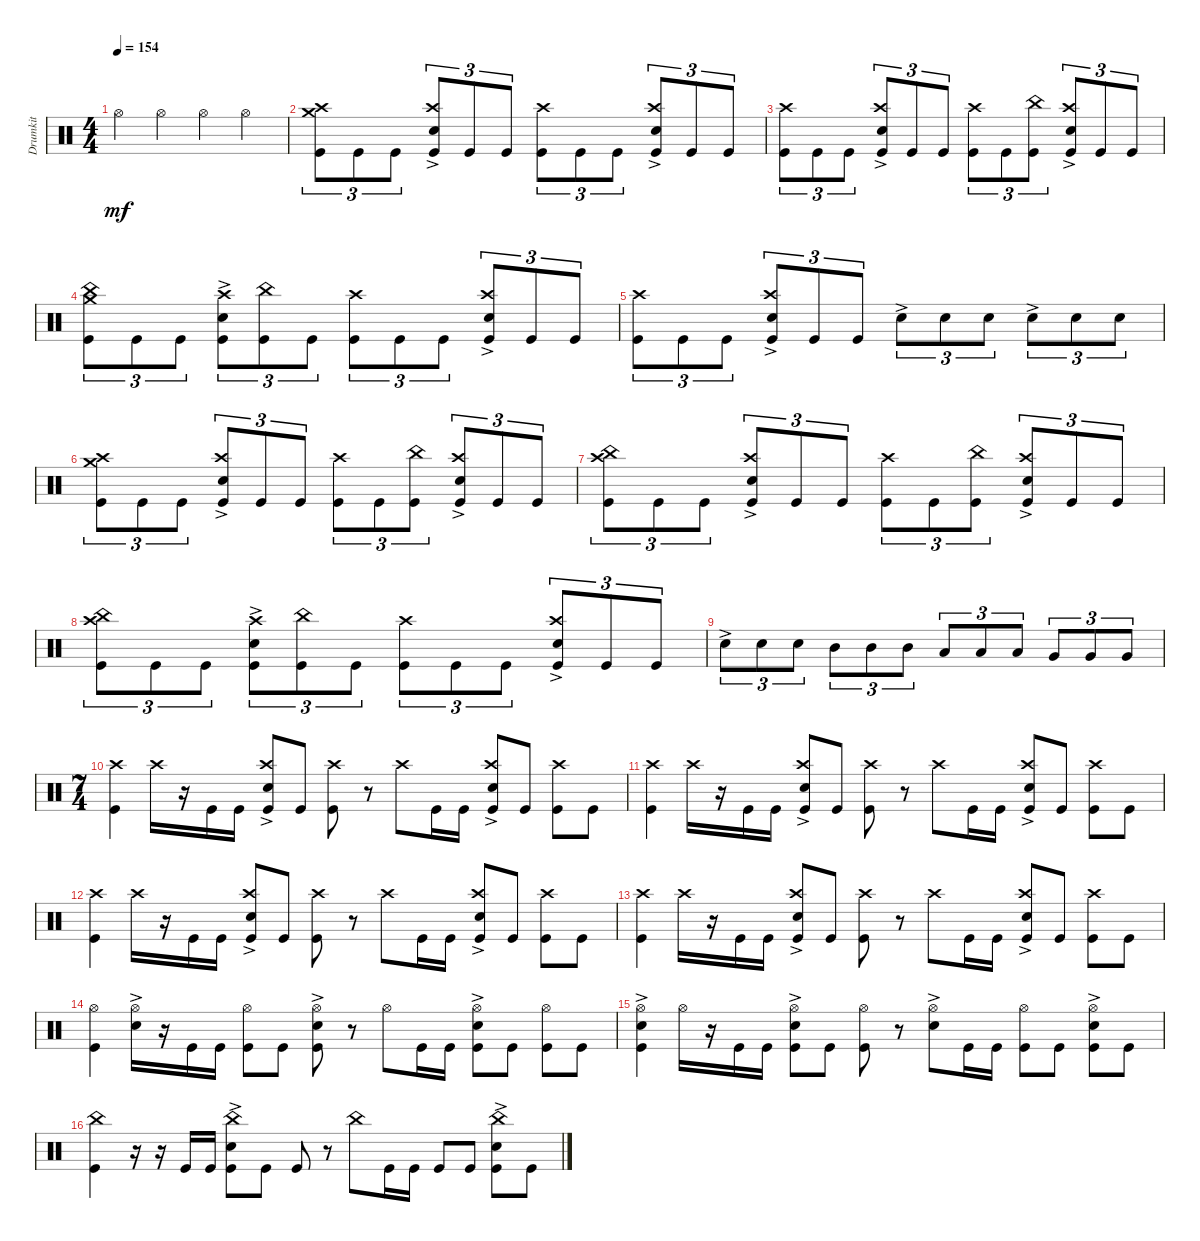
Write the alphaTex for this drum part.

\track ("Drumkit" "Drumkit") {instrument percussion}
\staff {score}
\articulation defaults
\ts (4 4)
\tempo 154
\clef neutral
\ks c "Hi-Hat (open)".4{dy mf} "Hi-Hat (open)".4 "Hi-Hat (open)".4 "Hi-Hat (open)".4
|
("Kick (hit)" "Crash high (hit)" "Crash medium (hit)").8{tu (3 2)} "Kick (hit)".8{tu (3 2)} "Kick (hit)".8{tu (3 2)} ("Kick (hit)" "Snare (hit) 2"{ac} "Crash high (hit)").8{tu (3 2)} "Kick (hit)".8{tu (3 2)} "Kick (hit)".8{tu (3 2)} ("Kick (hit)" "Crash high (hit)").8{tu (3 2)} "Kick (hit)".8{tu (3 2)} "Kick (hit)".8{tu (3 2)} ("Kick (hit)" "Snare (hit) 2"{ac} "Crash high (hit)").8{tu (3 2)} "Kick (hit)".8{tu (3 2)} "Kick (hit)".8{tu (3 2)} |
("Kick (hit)" "Crash high (hit)").8{tu (3 2)} "Kick (hit)".8{tu (3 2)} "Kick (hit)".8{tu (3 2)} ("Kick (hit)" "Snare (hit) 2"{ac} "Crash high (hit)").8{tu (3 2)} "Kick (hit)".8{tu (3 2)} "Kick (hit)".8{tu (3 2)} ("Kick (hit)" "Crash high (hit)").8{tu (3 2)} "Kick (hit)".8{tu (3 2)} ("Kick (hit)" "China (hit)").8{tu (3 2)} ("Kick (hit)" "Snare (hit) 2"{ac} "Crash high (hit)").8{tu (3 2)} "Kick (hit)".8{tu (3 2)} "Kick (hit)".8{tu (3 2)} |
("Kick (hit)" "Crash medium (hit)" "China (hit)").8{tu (3 2)} "Kick (hit)".8{tu (3 2)} "Kick (hit)".8{tu (3 2)} ("Kick (hit)" "Snare (hit) 2"{ac} "Crash high (hit)").8{tu (3 2)} ("Kick (hit)" "China (hit)").8{tu (3 2)} "Kick (hit)".8{tu (3 2)} ("Kick (hit)" "Crash high (hit)").8{tu (3 2)} "Kick (hit)".8{tu (3 2)} "Kick (hit)".8{tu (3 2)} ("Kick (hit)" "Snare (hit) 2"{ac} "Crash high (hit)").8{tu (3 2)} "Kick (hit)".8{tu (3 2)} "Kick (hit)".8{tu (3 2)} |
("Kick (hit)" "Crash high (hit)").8{tu (3 2)} "Kick (hit)".8{tu (3 2)} "Kick (hit)".8{tu (3 2)} ("Kick (hit)" "Snare (hit) 2"{ac} "Crash high (hit)").8{tu (3 2)} "Kick (hit)".8{tu (3 2)} "Kick (hit)".8{tu (3 2)} "Snare (hit) 2"{ac}.8{tu (3 2)} "Snare (hit) 2".8{tu (3 2)} "Snare (hit) 2".8{tu (3 2)} "Snare (hit) 2"{ac}.8{tu (3 2)} "Snare (hit) 2".8{tu (3 2)} "Snare (hit) 2".8{tu (3 2)} |
("Kick (hit)" "Crash high (hit)" "Crash medium (hit)").8{tu (3 2)} "Kick (hit)".8{tu (3 2)} "Kick (hit)".8{tu (3 2)} ("Kick (hit)" "Snare (hit) 2"{ac} "Crash high (hit)").8{tu (3 2)} "Kick (hit)".8{tu (3 2)} "Kick (hit)".8{tu (3 2)} ("Kick (hit)" "Crash high (hit)").8{tu (3 2)} "Kick (hit)".8{tu (3 2)} ("Kick (hit)" "China (hit)").8{tu (3 2)} ("Kick (hit)" "Snare (hit) 2"{ac} "Crash high (hit)").8{tu (3 2)} "Kick (hit)".8{tu (3 2)} "Kick (hit)".8{tu (3 2)} |
("Kick (hit)" "Crash high (hit)" "China (hit)").8{tu (3 2)} "Kick (hit)".8{tu (3 2)} "Kick (hit)".8{tu (3 2)} ("Kick (hit)" "Snare (hit) 2"{ac} "Crash high (hit)").8{tu (3 2)} "Kick (hit)".8{tu (3 2)} "Kick (hit)".8{tu (3 2)} ("Kick (hit)" "Crash high (hit)").8{tu (3 2)} "Kick (hit)".8{tu (3 2)} ("Kick (hit)" "China (hit)").8{tu (3 2)} ("Kick (hit)" "Snare (hit) 2"{ac} "Crash high (hit)").8{tu (3 2)} "Kick (hit)".8{tu (3 2)} "Kick (hit)".8{tu (3 2)} |
("Kick (hit)" "Crash high (hit)" "China (hit)").8{tu (3 2)} "Kick (hit)".8{tu (3 2)} "Kick (hit)".8{tu (3 2)} ("Kick (hit)" "Snare (hit) 2"{ac} "Crash high (hit)").8{tu (3 2)} ("Kick (hit)" "China (hit)").8{tu (3 2)} "Kick (hit)".8{tu (3 2)} ("Kick (hit)" "Crash high (hit)").8{tu (3 2)} "Kick (hit)".8{tu (3 2)} "Kick (hit)".8{tu (3 2)} ("Kick (hit)" "Snare (hit) 2"{ac} "Crash high (hit)").8{tu (3 2)} "Kick (hit)".8{tu (3 2)} "Kick (hit)".8{tu (3 2)} |
"Snare (hit) 2"{ac}.8{tu (3 2)} "Snare (hit) 2".8{tu (3 2)} "Snare (hit) 2".8{tu (3 2)} "Mid Tom (hit)".8{tu (3 2)} "Mid Tom (hit)".8{tu (3 2)} "Mid Tom (hit)".8{tu (3 2)} "Low Tom (hit)".8{tu (3 2)} "Low Tom (hit)".8{tu (3 2)} "Low Tom (hit)".8{tu (3 2)} "Very Low Tom (hit)".8{tu (3 2)} "Very Low Tom (hit)".8{tu (3 2)} "Very Low Tom (hit)".8{tu (3 2)} |
\ts (7 4)
("Kick (hit)" "Crash high (hit)").4 "Crash high (hit)".16 r.16 "Kick (hit)".16 "Kick (hit)".16 ("Kick (hit)" "Crash high (hit)" "Snare (hit) 2"{ac}).8 "Kick (hit)".8 ("Kick (hit)" "Crash high (hit)").8 r.8 "Crash high (hit)".8 "Kick (hit)".16 "Kick (hit)".16 ("Kick (hit)" "Crash high (hit)" "Snare (hit) 2"{ac}).8 "Kick (hit)".8 ("Kick (hit)" "Crash high (hit)").8 "Kick (hit)".8 |
("Kick (hit)" "Crash high (hit)").4 "Crash high (hit)".16 r.16 "Kick (hit)".16 "Kick (hit)".16 ("Kick (hit)" "Crash high (hit)" "Snare (hit) 2"{ac}).8 "Kick (hit)".8 ("Kick (hit)" "Crash high (hit)").8 r.8 "Crash high (hit)".8 "Kick (hit)".16 "Kick (hit)".16 ("Kick (hit)" "Crash high (hit)" "Snare (hit) 2"{ac}).8 "Kick (hit)".8 ("Kick (hit)" "Crash high (hit)").8 "Kick (hit)".8 |
("Kick (hit)" "Crash high (hit)").4 "Crash high (hit)".16 r.16 "Kick (hit)".16 "Kick (hit)".16 ("Kick (hit)" "Crash high (hit)" "Snare (hit) 2"{ac}).8 "Kick (hit)".8 ("Kick (hit)" "Crash high (hit)").8 r.8 "Crash high (hit)".8 "Kick (hit)".16 "Kick (hit)".16 ("Kick (hit)" "Crash high (hit)" "Snare (hit) 2"{ac}).8 "Kick (hit)".8 ("Kick (hit)" "Crash high (hit)").8 "Kick (hit)".8 |
("Kick (hit)" "Crash high (hit)").4 "Crash high (hit)".16 r.16 "Kick (hit)".16 "Kick (hit)".16 ("Kick (hit)" "Crash high (hit)" "Snare (hit) 2"{ac}).8 "Kick (hit)".8 ("Kick (hit)" "Crash high (hit)").8 r.8 "Crash high (hit)".8 "Kick (hit)".16 "Kick (hit)".16 ("Kick (hit)" "Crash high (hit)" "Snare (hit) 2"{ac}).8 "Kick (hit)".8 ("Kick (hit)" "Crash high (hit)").8 "Kick (hit)".8 |
("Kick (hit)" "Hi-Hat (open)").4 ("Hi-Hat (open)" "Snare (hit) 2"{ac}).16 r.16 "Kick (hit)".16 "Kick (hit)".16 ("Kick (hit)" "Hi-Hat (open)").8 "Kick (hit)".8 ("Kick (hit)" "Hi-Hat (open)" "Snare (hit) 2"{ac}).8 r.8 "Hi-Hat (open)".8 "Kick (hit)".16 "Kick (hit)".16 ("Kick (hit)" "Snare (hit) 2"{ac} "Hi-Hat (open)").8 "Kick (hit)".8 ("Kick (hit)" "Hi-Hat (open)").8 "Kick (hit)".8 |
("Kick (hit)" "Hi-Hat (open)" "Snare (hit) 2"{ac}).4 "Hi-Hat (open)".16 r.16 "Kick (hit)".16 "Kick (hit)".16 ("Kick (hit)" "Snare (hit) 2"{ac} "Hi-Hat (open)").8 "Kick (hit)".8 ("Kick (hit)" "Hi-Hat (open)").8 r.8 ("Hi-Hat (open)" "Snare (hit) 2"{ac}).8 "Kick (hit)".16 "Kick (hit)".16 ("Kick (hit)" "Hi-Hat (open)").8 "Kick (hit)".8 ("Kick (hit)" "Hi-Hat (open)" "Snare (hit) 2"{ac}).8 "Kick (hit)".8 |
("Kick (hit)" "China (hit)").4 r.16 r.16 "Kick (hit)".16 "Kick (hit)".16 ("Kick (hit)" "Snare (hit) 2"{ac} "China (hit)").8 "Kick (hit)".8 "Kick (hit)".8 r.8 "China (hit)".8 "Kick (hit)".16 "Kick (hit)".16 "Kick (hit)".8 "Kick (hit)".8 ("Kick (hit)" "China (hit)" "Snare (hit) 2"{ac}).8 "Kick (hit)".8
